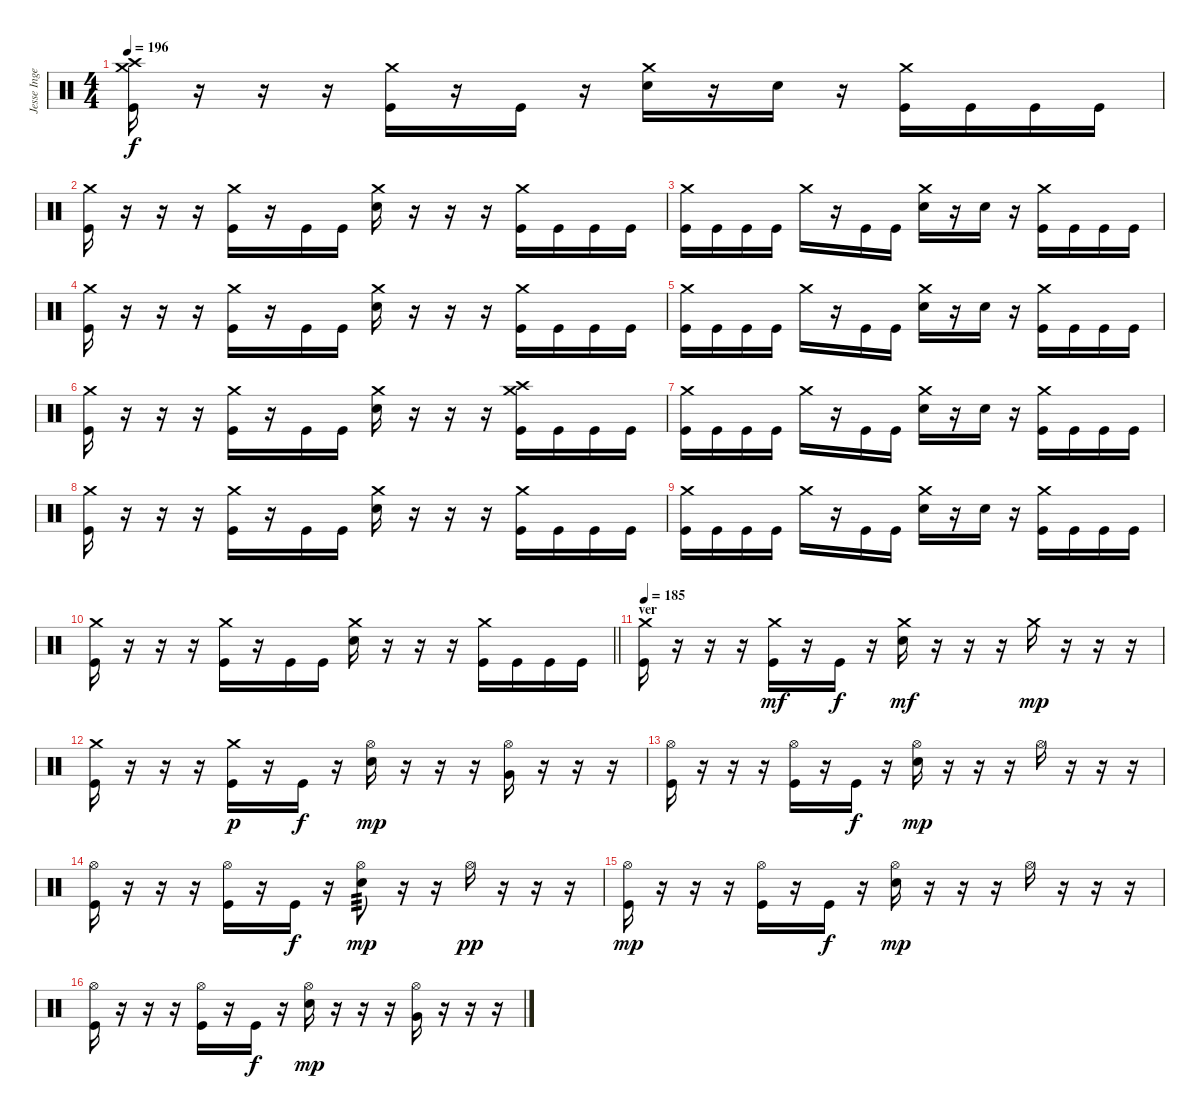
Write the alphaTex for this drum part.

\track ("Jesse Ingelevics" "Jesse Inge") {instrument percussion}
\staff {score}
\articulation defaults
\ts (4 4)
\tempo 196
\clef neutral
\ks c
("Crash high (hit)" "Crash medium (hit)" "Kick (hit)").16{dy f} r.16 r.16 r.16 ("Crash medium (hit)" "Kick (hit)").16 r.16 "Kick (hit)".16 r.16 ("Crash medium (hit)" "Electric Snare (hit)").16 r.16 "Electric Snare (hit)".16 r.16 ("Crash medium (hit)" "Kick (hit)").16 "Kick (hit)".16 "Kick (hit)".16 "Kick (hit)".16 |
("Crash medium (hit)" "Kick (hit)").16 r.16 r.16 r.16 ("Crash medium (hit)" "Kick (hit)").16 r.16 "Kick (hit)".16 "Kick (hit)".16 ("Crash medium (hit)" "Electric Snare (hit)").16 r.16 r.16 r.16 ("Crash medium (hit)" "Kick (hit)").16 "Kick (hit)".16 "Kick (hit)".16 "Kick (hit)".16 |
("Crash medium (hit)" "Kick (hit)").16 "Kick (hit)".16 "Kick (hit)".16 "Kick (hit)".16 "Crash medium (hit)".16 r.16 "Kick (hit)".16 "Kick (hit)".16 ("Crash medium (hit)" "Electric Snare (hit)").16 r.16 "Electric Snare (hit)".16 r.16 ("Crash medium (hit)" "Kick (hit)").16 "Kick (hit)".16 "Kick (hit)".16 "Kick (hit)".16 |
("Crash medium (hit)" "Kick (hit)").16 r.16 r.16 r.16 ("Crash medium (hit)" "Kick (hit)").16 r.16 "Kick (hit)".16 "Kick (hit)".16 ("Crash medium (hit)" "Electric Snare (hit)").16 r.16 r.16 r.16 ("Crash medium (hit)" "Kick (hit)").16 "Kick (hit)".16 "Kick (hit)".16 "Kick (hit)".16 |
("Crash medium (hit)" "Kick (hit)").16 "Kick (hit)".16 "Kick (hit)".16 "Kick (hit)".16 "Crash medium (hit)".16 r.16 "Kick (hit)".16 "Kick (hit)".16 ("Crash medium (hit)" "Electric Snare (hit)").16 r.16 "Electric Snare (hit)".16 r.16 ("Crash medium (hit)" "Kick (hit)").16 "Kick (hit)".16 "Kick (hit)".16 "Kick (hit)".16 |
("Crash medium (hit)" "Kick (hit)").16 r.16 r.16 r.16 ("Crash medium (hit)" "Kick (hit)").16 r.16 "Kick (hit)".16 "Kick (hit)".16 ("Crash medium (hit)" "Electric Snare (hit)").16 r.16 r.16 r.16 ("Crash medium (hit)" "Crash high (hit)" "Kick (hit)").16 "Kick (hit)".16 "Kick (hit)".16 "Kick (hit)".16 |
("Crash medium (hit)" "Kick (hit)").16 "Kick (hit)".16 "Kick (hit)".16 "Kick (hit)".16 "Crash medium (hit)".16 r.16 "Kick (hit)".16 "Kick (hit)".16 ("Crash medium (hit)" "Electric Snare (hit)").16 r.16 "Electric Snare (hit)".16 r.16 ("Crash medium (hit)" "Kick (hit)").16 "Kick (hit)".16 "Kick (hit)".16 "Kick (hit)".16 |
("Crash medium (hit)" "Kick (hit)").16 r.16 r.16 r.16 ("Crash medium (hit)" "Kick (hit)").16 r.16 "Kick (hit)".16 "Kick (hit)".16 ("Crash medium (hit)" "Electric Snare (hit)").16 r.16 r.16 r.16 ("Crash medium (hit)" "Kick (hit)").16 "Kick (hit)".16 "Kick (hit)".16 "Kick (hit)".16 |
("Crash medium (hit)" "Kick (hit)").16 "Kick (hit)".16 "Kick (hit)".16 "Kick (hit)".16 "Crash medium (hit)".16 r.16 "Kick (hit)".16 "Kick (hit)".16 ("Crash medium (hit)" "Electric Snare (hit)").16 r.16 "Electric Snare (hit)".16 r.16 ("Crash medium (hit)" "Kick (hit)").16 "Kick (hit)".16 "Kick (hit)".16 "Kick (hit)".16 |
\barLineRight lightlight
("Crash medium (hit)" "Kick (hit)").16 r.16 r.16 r.16 ("Crash medium (hit)" "Kick (hit)").16 r.16 "Kick (hit)".16 "Kick (hit)".16 ("Crash medium (hit)" "Electric Snare (hit)").16 r.16 r.16 r.16 ("Crash medium (hit)" "Kick (hit)").16 "Kick (hit)".16 "Kick (hit)".16 "Kick (hit)".16 |
\section ("" "ver")
\tempo 185
("Crash medium (hit)" "Kick (hit)").16 r.16 r.16 r.16 ("Crash medium (hit)" "Kick (hit)").16{dy mf} r.16 "Kick (hit)".16{dy f} r.16 ("Crash medium (hit)" "Electric Snare (hit)").16{dy mf} r.16 r.16 r.16 "Crash medium (hit)".16{dy mp} r.16 r.16 r.16 |
("Crash medium (hit)" "Kick (hit)").16 r.16 r.16 r.16 ("Crash medium (hit)" "Kick (hit)").16{dy p} r.16 "Kick (hit)".16{dy f} r.16 ("Hi-Hat (open)" "Electric Snare (hit)").16{dy mp} r.16 r.16 r.16 ("Hi-Hat (open)" "Very Low Tom (hit)").16 r.16 r.16 r.16 |
("Hi-Hat (open)" "Kick (hit)").16 r.16 r.16 r.16 ("Hi-Hat (open)" "Kick (hit)").16 r.16 "Kick (hit)".16{dy f} r.16 ("Hi-Hat (open)" "Electric Snare (hit)").16{dy mp} r.16 r.16 r.16 "Hi-Hat (open)".16 r.16 r.16 r.16 |
("Hi-Hat (open)" "Kick (hit)").16 r.16 r.16 r.16 ("Hi-Hat (open)" "Kick (hit)").16 r.16 "Kick (hit)".16{dy f} r.16 ("Hi-Hat (open)" "Electric Snare (hit)").8{tp 3 dy mp} r.16 r.16 "Hi-Hat (open)".16{dy pp} r.16 r.16 r.16 |
("Hi-Hat (open)" "Kick (hit)").16{dy mp} r.16 r.16 r.16 ("Hi-Hat (open)" "Kick (hit)").16 r.16 "Kick (hit)".16{dy f} r.16 ("Hi-Hat (open)" "Electric Snare (hit)").16{dy mp} r.16 r.16 r.16 "Hi-Hat (open)".16 r.16 r.16 r.16 |
("Hi-Hat (open)" "Kick (hit)").16 r.16 r.16 r.16 ("Hi-Hat (open)" "Kick (hit)").16 r.16 "Kick (hit)".16{dy f} r.16 ("Hi-Hat (open)" "Electric Snare (hit)").16{dy mp} r.16 r.16 r.16 ("Hi-Hat (open)" "Very Low Tom (hit)").16 r.16 r.16 r.16
